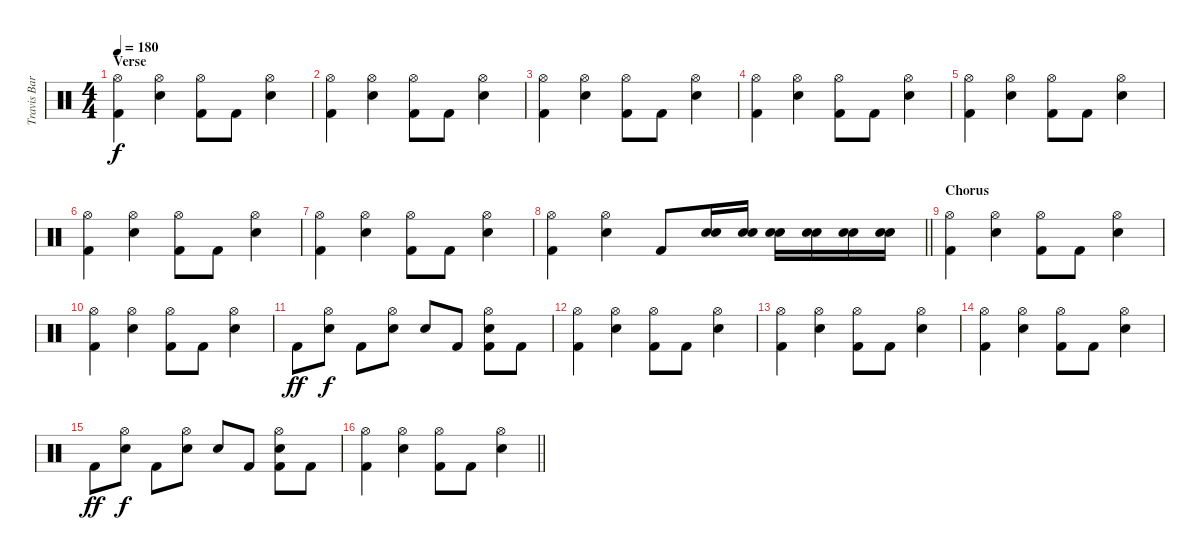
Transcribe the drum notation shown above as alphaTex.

\track ("Travis Barker" "Travis Bar") {instrument percussion}
\staff {score}
\articulation defaults
\ts (4 4)
\section ("" "Verse")
\tempo 180
\clef neutral
\ks c
("Hi-Hat (open)" "Kick (hit) 2").4{dy f} ("Hi-Hat (open)" "Electric Snare (hit)").4 ("Hi-Hat (open)" "Kick (hit) 2").8 "Kick (hit) 2".8 ("Hi-Hat (open)" "Electric Snare (hit)").4 |
("Hi-Hat (open)" "Kick (hit) 2").4 ("Hi-Hat (open)" "Electric Snare (hit)").4 ("Hi-Hat (open)" "Kick (hit) 2").8 "Kick (hit) 2".8 ("Hi-Hat (open)" "Electric Snare (hit)").4 |
("Hi-Hat (open)" "Kick (hit) 2").4 ("Hi-Hat (open)" "Electric Snare (hit)").4 ("Hi-Hat (open)" "Kick (hit) 2").8 "Kick (hit) 2".8 ("Hi-Hat (open)" "Electric Snare (hit)").4 |
("Hi-Hat (open)" "Kick (hit) 2").4 ("Hi-Hat (open)" "Electric Snare (hit)").4 ("Hi-Hat (open)" "Kick (hit) 2").8 "Kick (hit) 2".8 ("Hi-Hat (open)" "Electric Snare (hit)").4 |
("Hi-Hat (open)" "Kick (hit) 2").4 ("Hi-Hat (open)" "Electric Snare (hit)").4 ("Hi-Hat (open)" "Kick (hit) 2").8 "Kick (hit) 2".8 ("Hi-Hat (open)" "Electric Snare (hit)").4 |
("Hi-Hat (open)" "Kick (hit) 2").4 ("Hi-Hat (open)" "Electric Snare (hit)").4 ("Hi-Hat (open)" "Kick (hit) 2").8 "Kick (hit) 2".8 ("Hi-Hat (open)" "Electric Snare (hit)").4 |
("Hi-Hat (open)" "Kick (hit) 2").4 ("Hi-Hat (open)" "Electric Snare (hit)").4 ("Hi-Hat (open)" "Kick (hit) 2").8 "Kick (hit) 2".8 ("Hi-Hat (open)" "Electric Snare (hit)").4 |
\barLineRight lightlight
("Hi-Hat (open)" "Kick (hit) 2").4 ("Hi-Hat (open)" "Electric Snare (hit)").4 "Kick (hit) 2".8 ("Electric Snare (hit)" "Electric Snare (hit)").16 ("Electric Snare (hit)" "Electric Snare (hit)").16 ("Electric Snare (hit)" "Electric Snare (hit)").16 ("Electric Snare (hit)" "Electric Snare (hit)").16 ("Electric Snare (hit)" "Electric Snare (hit)").16 ("Electric Snare (hit)" "Electric Snare (hit)").16 |
\section ("" "Chorus")
("Hi-Hat (open)" "Kick (hit) 2").4 ("Hi-Hat (open)" "Electric Snare (hit)").4 ("Hi-Hat (open)" "Kick (hit) 2").8 "Kick (hit) 2".8 ("Hi-Hat (open)" "Electric Snare (hit)").4 |
("Hi-Hat (open)" "Kick (hit) 2").4 ("Hi-Hat (open)" "Electric Snare (hit)").4 ("Hi-Hat (open)" "Kick (hit) 2").8 "Kick (hit) 2".8 ("Hi-Hat (open)" "Electric Snare (hit)").4 |
"Kick (hit) 2".8{dy ff} ("Hi-Hat (open)" "Electric Snare (hit)").8{dy f} "Kick (hit) 2".8 ("Hi-Hat (open)" "Electric Snare (hit)").8 "Electric Snare (hit)".8 "Kick (hit) 2".8 ("Hi-Hat (open)" "Electric Snare (hit)" "Kick (hit) 2").8 "Kick (hit) 2".8 |
("Hi-Hat (open)" "Kick (hit) 2").4 ("Hi-Hat (open)" "Electric Snare (hit)").4 ("Hi-Hat (open)" "Kick (hit) 2").8 "Kick (hit) 2".8 ("Hi-Hat (open)" "Electric Snare (hit)").4 |
("Hi-Hat (open)" "Kick (hit) 2").4 ("Hi-Hat (open)" "Electric Snare (hit)").4 ("Hi-Hat (open)" "Kick (hit) 2").8 "Kick (hit) 2".8 ("Hi-Hat (open)" "Electric Snare (hit)").4 |
("Hi-Hat (open)" "Kick (hit) 2").4 ("Hi-Hat (open)" "Electric Snare (hit)").4 ("Hi-Hat (open)" "Kick (hit) 2").8 "Kick (hit) 2".8 ("Hi-Hat (open)" "Electric Snare (hit)").4 |
"Kick (hit) 2".8{dy ff} ("Hi-Hat (open)" "Electric Snare (hit)").8{dy f} "Kick (hit) 2".8 ("Hi-Hat (open)" "Electric Snare (hit)").8 "Electric Snare (hit)".8 "Kick (hit) 2".8 ("Hi-Hat (open)" "Electric Snare (hit)" "Kick (hit) 2").8 "Kick (hit) 2".8 |
\barLineRight lightlight
("Hi-Hat (open)" "Kick (hit) 2").4 ("Hi-Hat (open)" "Electric Snare (hit)").4 ("Hi-Hat (open)" "Kick (hit) 2").8 "Kick (hit) 2".8 ("Hi-Hat (open)" "Electric Snare (hit)").4
